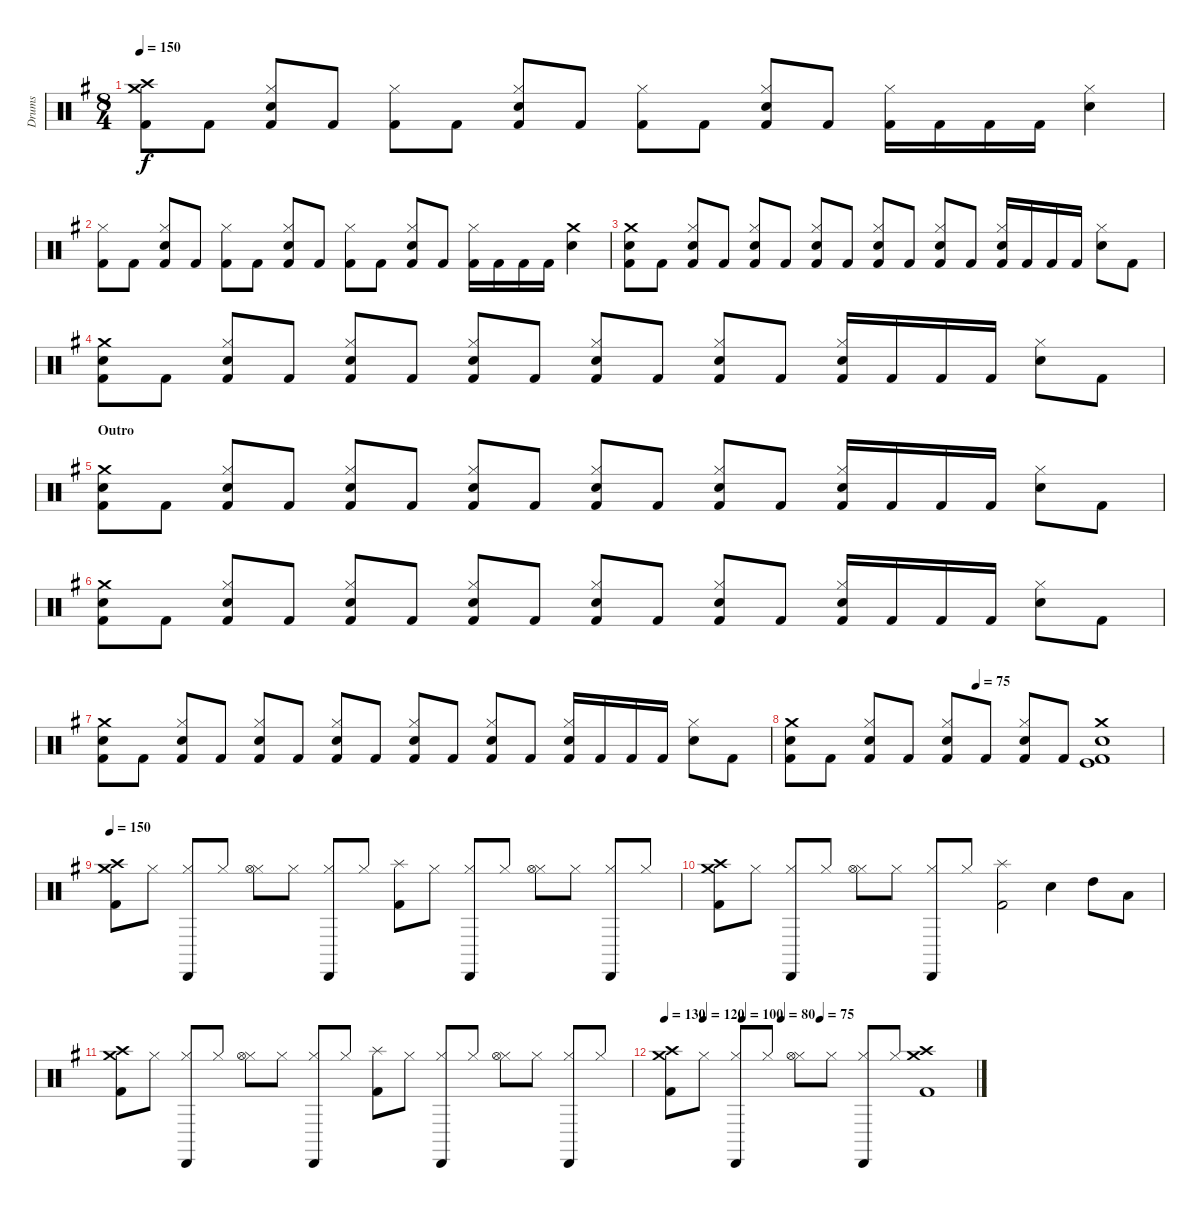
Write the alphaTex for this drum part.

\track ("Drums" "Drums") {instrument percussion}
\staff {score}
\articulation defaults
\ts (8 4)
\tempo 150
\clef neutral
\ks g
("Crash medium (hit)" "Crash high (hit)" "Kick (hit) 2").8{dy f} "Kick (hit) 2".8 ("Hi-Hat (closed)" "Snare (hit) 2" "Kick (hit) 2").8 "Kick (hit) 2".8 ("Hi-Hat (closed)" "Kick (hit) 2").8 "Kick (hit) 2".8 ("Hi-Hat (closed)" "Snare (hit) 2" "Kick (hit) 2").8 "Kick (hit) 2".8 ("Hi-Hat (closed)" "Kick (hit) 2").8 "Kick (hit) 2".8 ("Hi-Hat (closed)" "Snare (hit) 2" "Kick (hit) 2").8 "Kick (hit) 2".8 ("Hi-Hat (closed)" "Kick (hit) 2").16 "Kick (hit) 2".16 "Kick (hit) 2".16 "Kick (hit) 2".16 ("Hi-Hat (closed)" "Snare (hit) 2").4 |
("Hi-Hat (closed)" "Kick (hit) 2").8 "Kick (hit) 2".8 ("Hi-Hat (closed)" "Snare (hit) 2" "Kick (hit) 2").8 "Kick (hit) 2".8 ("Hi-Hat (closed)" "Kick (hit) 2").8 "Kick (hit) 2".8 ("Hi-Hat (closed)" "Snare (hit) 2" "Kick (hit) 2").8 "Kick (hit) 2".8 ("Hi-Hat (closed)" "Kick (hit) 2").8 "Kick (hit) 2".8 ("Hi-Hat (closed)" "Snare (hit) 2" "Kick (hit) 2").8 "Kick (hit) 2".8 ("Hi-Hat (closed)" "Kick (hit) 2").16 "Kick (hit) 2".16 "Kick (hit) 2".16 "Kick (hit) 2".16 ("Crash medium (hit)" "Snare (hit) 2").4 |
("Crash medium (hit)" "Snare (hit) 2" "Kick (hit) 2").8 "Kick (hit) 2".8 ("Hi-Hat (closed)" "Snare (hit) 2" "Kick (hit) 2").8 "Kick (hit) 2".8 ("Hi-Hat (closed)" "Snare (hit) 2" "Kick (hit) 2").8 "Kick (hit) 2".8 ("Hi-Hat (closed)" "Snare (hit) 2" "Kick (hit) 2").8 "Kick (hit) 2".8 ("Hi-Hat (closed)" "Snare (hit) 2" "Kick (hit) 2").8 "Kick (hit) 2".8 ("Hi-Hat (closed)" "Snare (hit) 2" "Kick (hit) 2").8 "Kick (hit) 2".8 ("Hi-Hat (closed)" "Snare (hit) 2" "Kick (hit) 2").16 "Kick (hit) 2".16 "Kick (hit) 2".16 "Kick (hit) 2".16 ("Hi-Hat (closed)" "Snare (hit) 2").8 "Kick (hit) 2".8 |
("Crash medium (hit)" "Snare (hit) 2" "Kick (hit) 2").8 "Kick (hit) 2".8 ("Hi-Hat (closed)" "Snare (hit) 2" "Kick (hit) 2").8 "Kick (hit) 2".8 ("Hi-Hat (closed)" "Snare (hit) 2" "Kick (hit) 2").8 "Kick (hit) 2".8 ("Hi-Hat (closed)" "Snare (hit) 2" "Kick (hit) 2").8 "Kick (hit) 2".8 ("Hi-Hat (closed)" "Snare (hit) 2" "Kick (hit) 2").8 "Kick (hit) 2".8 ("Hi-Hat (closed)" "Snare (hit) 2" "Kick (hit) 2").8 "Kick (hit) 2".8 ("Hi-Hat (closed)" "Snare (hit) 2" "Kick (hit) 2").16 "Kick (hit) 2".16 "Kick (hit) 2".16 "Kick (hit) 2".16 ("Hi-Hat (closed)" "Snare (hit) 2").8 "Kick (hit) 2".8 |
\section ("" "Outro")
("Crash medium (hit)" "Snare (hit) 2" "Kick (hit) 2").8 "Kick (hit) 2".8 ("Hi-Hat (closed)" "Snare (hit) 2" "Kick (hit) 2").8 "Kick (hit) 2".8 ("Hi-Hat (closed)" "Snare (hit) 2" "Kick (hit) 2").8 "Kick (hit) 2".8 ("Hi-Hat (closed)" "Snare (hit) 2" "Kick (hit) 2").8 "Kick (hit) 2".8 ("Hi-Hat (closed)" "Snare (hit) 2" "Kick (hit) 2").8 "Kick (hit) 2".8 ("Hi-Hat (closed)" "Snare (hit) 2" "Kick (hit) 2").8 "Kick (hit) 2".8 ("Hi-Hat (closed)" "Snare (hit) 2" "Kick (hit) 2").16 "Kick (hit) 2".16 "Kick (hit) 2".16 "Kick (hit) 2".16 ("Hi-Hat (closed)" "Snare (hit) 2").8 "Kick (hit) 2".8 |
("Crash medium (hit)" "Snare (hit) 2" "Kick (hit) 2").8 "Kick (hit) 2".8 ("Hi-Hat (closed)" "Snare (hit) 2" "Kick (hit) 2").8 "Kick (hit) 2".8 ("Hi-Hat (closed)" "Snare (hit) 2" "Kick (hit) 2").8 "Kick (hit) 2".8 ("Hi-Hat (closed)" "Snare (hit) 2" "Kick (hit) 2").8 "Kick (hit) 2".8 ("Hi-Hat (closed)" "Snare (hit) 2" "Kick (hit) 2").8 "Kick (hit) 2".8 ("Hi-Hat (closed)" "Snare (hit) 2" "Kick (hit) 2").8 "Kick (hit) 2".8 ("Hi-Hat (closed)" "Snare (hit) 2" "Kick (hit) 2").16 "Kick (hit) 2".16 "Kick (hit) 2".16 "Kick (hit) 2".16 ("Hi-Hat (closed)" "Snare (hit) 2").8 "Kick (hit) 2".8 |
("Crash medium (hit)" "Snare (hit) 2" "Kick (hit) 2").8 "Kick (hit) 2".8 ("Hi-Hat (closed)" "Snare (hit) 2" "Kick (hit) 2").8 "Kick (hit) 2".8 ("Hi-Hat (closed)" "Snare (hit) 2" "Kick (hit) 2").8 "Kick (hit) 2".8 ("Hi-Hat (closed)" "Snare (hit) 2" "Kick (hit) 2").8 "Kick (hit) 2".8 ("Hi-Hat (closed)" "Snare (hit) 2" "Kick (hit) 2").8 "Kick (hit) 2".8 ("Hi-Hat (closed)" "Snare (hit) 2" "Kick (hit) 2").8 "Kick (hit) 2".8 ("Hi-Hat (closed)" "Snare (hit) 2" "Kick (hit) 2").16 "Kick (hit) 2".16 "Kick (hit) 2".16 "Kick (hit) 2".16 ("Hi-Hat (closed)" "Snare (hit) 2").8 "Kick (hit) 2".8 |
\tempo (75 0.5)
("Crash medium (hit)" "Snare (hit) 2" "Kick (hit) 2").8 "Kick (hit) 2".8 ("Hi-Hat (closed)" "Snare (hit) 2" "Kick (hit) 2").8 "Kick (hit) 2".8 ("Hi-Hat (closed)" "Snare (hit) 2" "Kick (hit) 2").8 "Kick (hit) 2".8 ("Hi-Hat (closed)" "Snare (hit) 2" "Kick (hit) 2").8 "Kick (hit) 2".8 ("Crash medium (hit)" "Snare (hit) 2" "Kick (hit) 2" "Kick (hit)").1 |
\tempo 150
("Crash medium (hit)" "Crash high (hit)" "Kick (hit) 2").8 "Hi-Hat (closed)".8 ("Hi-Hat (closed)" "Cabasa (hit)").8 "Hi-Hat (closed)".8 ("Hi-Hat (closed)" "Hi-Hat (open)").8 "Hi-Hat (closed)".8 ("Hi-Hat (closed)" "Cabasa (hit)").8 "Hi-Hat (closed)".8 ("Splash (hit)" "Kick (hit) 2").8 "Hi-Hat (closed)".8 ("Hi-Hat (closed)" "Cabasa (hit)").8 "Hi-Hat (closed)".8 ("Hi-Hat (closed)" "Hi-Hat (open)").8 "Hi-Hat (closed)".8 ("Hi-Hat (closed)" "Cabasa (hit)").8 "Hi-Hat (closed)".8 |
("Crash medium (hit)" "Crash high (hit)" "Kick (hit) 2").8 "Hi-Hat (closed)".8 ("Hi-Hat (closed)" "Cabasa (hit)").8 "Hi-Hat (closed)".8 ("Hi-Hat (closed)" "Hi-Hat (open)").8 "Hi-Hat (closed)".8 ("Hi-Hat (closed)" "Cabasa (hit)").8 "Hi-Hat (closed)".8 ("Splash (hit)" "Kick (hit) 2").2 "Snare (hit) 2".4 "High Tom (hit)".8 "Low Tom (hit)".8 |
("Crash medium (hit)" "Crash high (hit)" "Kick (hit) 2").8 "Hi-Hat (closed)".8 ("Hi-Hat (closed)" "Cabasa (hit)").8 "Hi-Hat (closed)".8 ("Hi-Hat (closed)" "Hi-Hat (open)").8 "Hi-Hat (closed)".8 ("Hi-Hat (closed)" "Cabasa (hit)").8 "Hi-Hat (closed)".8 ("Splash (hit)" "Kick (hit) 2").8 "Hi-Hat (closed)".8 ("Hi-Hat (closed)" "Cabasa (hit)").8 "Hi-Hat (closed)".8 ("Hi-Hat (closed)" "Hi-Hat (open)").8 "Hi-Hat (closed)".8 ("Hi-Hat (closed)" "Cabasa (hit)").8 "Hi-Hat (closed)".8 |
\tempo 130
\tempo (120 0.125)
\tempo (100 0.25)
\tempo (80 0.375)
\tempo (75 0.5)
("Crash medium (hit)" "Crash high (hit)" "Kick (hit) 2").8 "Hi-Hat (closed)".8 ("Hi-Hat (closed)" "Cabasa (hit)").8 "Hi-Hat (closed)".8 ("Hi-Hat (closed)" "Hi-Hat (open)").8 "Hi-Hat (closed)".8 ("Hi-Hat (closed)" "Cabasa (hit)").8 "Hi-Hat (closed)".8 ("Crash medium (hit)" "Crash high (hit)" "Kick (hit) 2").1
